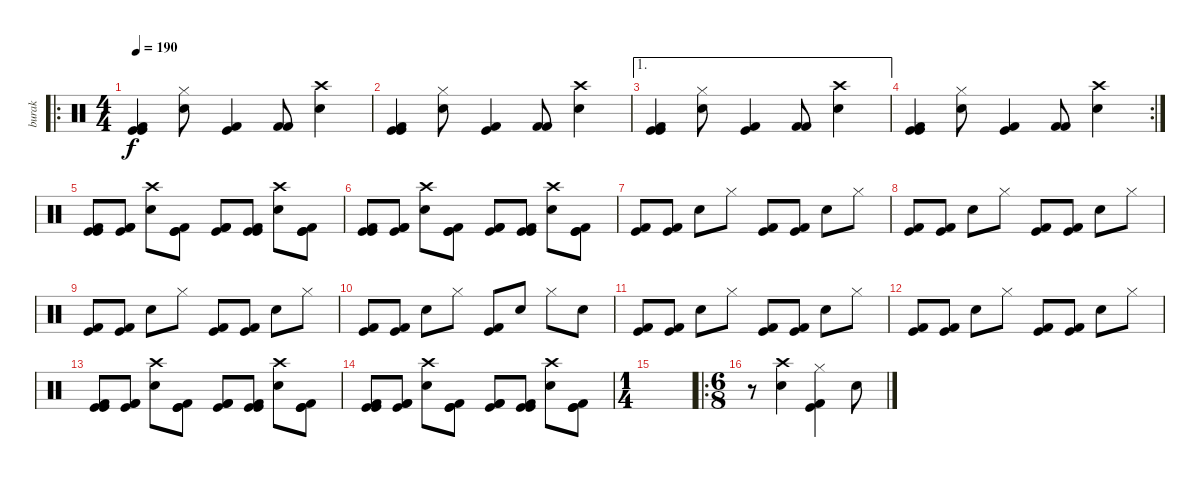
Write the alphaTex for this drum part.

\track ("burak" "burak") {instrument percussion}
\staff {score}
\articulation defaults
\ro
\ts (4 4)
\tempo 190
\clef neutral
\ks c
("Kick (hit)" "Kick (hit)" "Kick (hit) 2").4{dy f} ("Hi-Hat (closed)" "Electric Snare (hit)").8 ("Kick (hit)" "Kick (hit) 2").4 ("Kick (hit) 2" "Kick (hit) 2").8 ("Crash high (hit)" "Electric Snare (hit)").4 |
("Kick (hit)" "Kick (hit)" "Kick (hit) 2").4 ("Hi-Hat (closed)" "Electric Snare (hit)").8 ("Kick (hit)" "Kick (hit) 2").4 ("Kick (hit) 2" "Kick (hit) 2").8 ("Crash high (hit)" "Electric Snare (hit)").4 |
\ae 1
("Kick (hit)" "Kick (hit)" "Kick (hit) 2").4 ("Hi-Hat (closed)" "Electric Snare (hit)").8 ("Kick (hit)" "Kick (hit) 2").4 ("Kick (hit) 2" "Kick (hit) 2").8 ("Crash high (hit)" "Electric Snare (hit)").4 |
\rc 2
("Kick (hit)" "Kick (hit)" "Kick (hit) 2").4 ("Hi-Hat (closed)" "Electric Snare (hit)").8 ("Kick (hit)" "Kick (hit) 2").4 ("Kick (hit) 2" "Kick (hit) 2").8 ("Crash high (hit)" "Electric Snare (hit)").4 |
("Kick (hit)" "Kick (hit)" "Kick (hit) 2").8 ("Kick (hit)" "Kick (hit) 2" "Kick (hit) 2").8 ("Crash high (hit)" "Electric Snare (hit)").8 ("Kick (hit)" "Kick (hit)" "Kick (hit) 2").8 ("Kick (hit) 2" "Kick (hit)" "Kick (hit) 2").8 ("Kick (hit)" "Kick (hit)" "Kick (hit) 2").8 ("Crash high (hit)" "Electric Snare (hit)").8 ("Kick (hit)" "Kick (hit)" "Kick (hit) 2").8 |
("Kick (hit)" "Kick (hit)" "Kick (hit) 2").8 ("Kick (hit)" "Kick (hit) 2" "Kick (hit) 2").8 ("Crash high (hit)" "Electric Snare (hit)").8 ("Kick (hit)" "Kick (hit)" "Kick (hit) 2").8 ("Kick (hit) 2" "Kick (hit)" "Kick (hit) 2").8 ("Kick (hit)" "Kick (hit)" "Kick (hit) 2").8 ("Crash high (hit)" "Electric Snare (hit)").8 ("Kick (hit)" "Kick (hit)" "Kick (hit) 2").8 |
("Kick (hit)" "Kick (hit) 2").8 ("Kick (hit)" "Kick (hit) 2").8 "Electric Snare (hit)".8 "Hi-Hat (closed)".8 ("Kick (hit)" "Kick (hit) 2").8 ("Kick (hit)" "Kick (hit) 2").8 "Electric Snare (hit)".8 "Hi-Hat (closed)".8 |
("Kick (hit)" "Kick (hit) 2").8 ("Kick (hit)" "Kick (hit) 2").8 "Electric Snare (hit)".8 "Hi-Hat (closed)".8 ("Kick (hit)" "Kick (hit) 2").8 ("Kick (hit)" "Kick (hit) 2").8 "Electric Snare (hit)".8 "Hi-Hat (closed)".8 |
("Kick (hit)" "Kick (hit) 2").8 ("Kick (hit)" "Kick (hit) 2").8 "Electric Snare (hit)".8 "Hi-Hat (closed)".8 ("Kick (hit)" "Kick (hit) 2").8 ("Kick (hit)" "Kick (hit) 2").8 "Electric Snare (hit)".8 "Hi-Hat (closed)".8 |
("Kick (hit)" "Kick (hit) 2").8 ("Kick (hit)" "Kick (hit) 2").8 "Electric Snare (hit)".8 "Hi-Hat (closed)".8 ("Kick (hit)" "Kick (hit) 2").8 "Electric Snare (hit)".8 "Hi-Hat (closed)".8 "Electric Snare (hit)".8 |
("Kick (hit)" "Kick (hit) 2").8 ("Kick (hit)" "Kick (hit) 2").8 "Electric Snare (hit)".8 "Hi-Hat (closed)".8 ("Kick (hit)" "Kick (hit) 2").8 ("Kick (hit)" "Kick (hit) 2").8 "Electric Snare (hit)".8 "Hi-Hat (closed)".8 |
("Kick (hit)" "Kick (hit) 2").8 ("Kick (hit)" "Kick (hit) 2").8 "Electric Snare (hit)".8 "Hi-Hat (closed)".8 ("Kick (hit)" "Kick (hit) 2").8 ("Kick (hit)" "Kick (hit) 2").8 "Electric Snare (hit)".8 "Hi-Hat (closed)".8 |
("Kick (hit)" "Kick (hit)" "Kick (hit) 2").8 ("Kick (hit)" "Kick (hit) 2" "Kick (hit) 2").8 ("Crash high (hit)" "Electric Snare (hit)").8 ("Kick (hit)" "Kick (hit)" "Kick (hit) 2").8 ("Kick (hit) 2" "Kick (hit)" "Kick (hit) 2").8 ("Kick (hit)" "Kick (hit)" "Kick (hit) 2").8 ("Crash high (hit)" "Electric Snare (hit)").8 ("Kick (hit)" "Kick (hit)" "Kick (hit) 2").8 |
("Kick (hit)" "Kick (hit)" "Kick (hit) 2").8 ("Kick (hit)" "Kick (hit) 2" "Kick (hit) 2").8 ("Crash high (hit)" "Electric Snare (hit)").8 ("Kick (hit)" "Kick (hit)" "Kick (hit) 2").8 ("Kick (hit) 2" "Kick (hit)" "Kick (hit) 2").8 ("Kick (hit)" "Kick (hit)" "Kick (hit) 2").8 ("Crash high (hit)" "Electric Snare (hit)").8 ("Kick (hit)" "Kick (hit)" "Kick (hit) 2").8 |
\ts (1 4)
|
\ro
\ts (6 8)
r.8 ("Electric Snare (hit)" "Crash high (hit)").4 ("Hi-Hat (closed)" "Kick (hit)" "Kick (hit) 2").4 "Electric Snare (hit)".8
